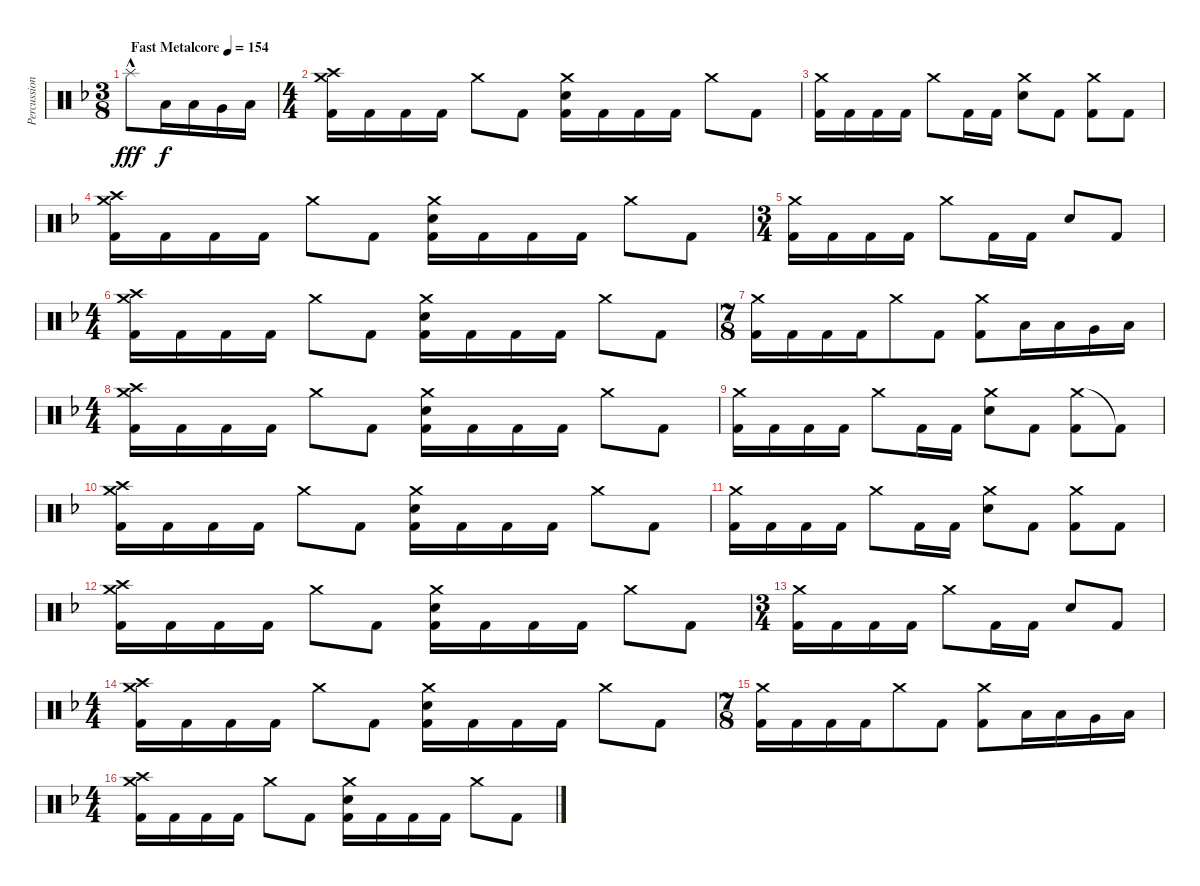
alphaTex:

\track ("Percussion" "Percussion") {instrument percussion}
\staff {score}
\articulation defaults
\ts (3 8)
\tempo (154 "Fast Metalcore")
\clef neutral
\ks dminor "Splash (hit)"{hac}.8{dy fff} "Low Tom (hit)".16{dy f} "Low Tom (hit)".16 "Very Low Tom (hit)".16 "Low Floor Tom (hit)".16
|
\ts (4 4)
("Crash medium (hit)" "Crash high (hit)" "Kick (hit) 2").16 "Kick (hit) 2".16 "Kick (hit) 2".16 "Kick (hit) 2".16 "Crash medium (hit)".8 "Kick (hit) 2".8 ("Crash medium (hit)" "Electric Snare (hit)" "Kick (hit) 2").16 "Kick (hit) 2".16 "Kick (hit) 2".16 "Kick (hit) 2".16 "Crash medium (hit)".8 "Kick (hit) 2".8 |
("Crash medium (hit)" "Kick (hit) 2").16 "Kick (hit) 2".16 "Kick (hit) 2".16 "Kick (hit) 2".16 "Crash medium (hit)".8 "Kick (hit) 2".16 "Kick (hit) 2".16 ("Crash medium (hit)" "Electric Snare (hit)").8 "Kick (hit) 2".8 ("Crash medium (hit)" "Kick (hit) 2").8 "Kick (hit) 2".8 |
("Crash medium (hit)" "Crash high (hit)" "Kick (hit) 2").16 "Kick (hit) 2".16 "Kick (hit) 2".16 "Kick (hit) 2".16 "Crash medium (hit)".8 "Kick (hit) 2".8 ("Crash medium (hit)" "Electric Snare (hit)" "Kick (hit) 2").16 "Kick (hit) 2".16 "Kick (hit) 2".16 "Kick (hit) 2".16 "Crash medium (hit)".8 "Kick (hit) 2".8 |
\ts (3 4)
("Crash medium (hit)" "Kick (hit) 2").16 "Kick (hit) 2".16 "Kick (hit) 2".16 "Kick (hit) 2".16 "Crash medium (hit)".8 "Kick (hit) 2".16 "Kick (hit) 2".16 "Electric Snare (hit)".8 "Kick (hit) 2".8 |
\ts (4 4)
("Crash medium (hit)" "Crash high (hit)" "Kick (hit) 2").16 "Kick (hit) 2".16 "Kick (hit) 2".16 "Kick (hit) 2".16 "Crash medium (hit)".8 "Kick (hit) 2".8 ("Crash medium (hit)" "Electric Snare (hit)" "Kick (hit) 2").16 "Kick (hit) 2".16 "Kick (hit) 2".16 "Kick (hit) 2".16 "Crash medium (hit)".8 "Kick (hit) 2".8 |
\ts (7 8)
("Crash medium (hit)" "Kick (hit) 2").16 "Kick (hit) 2".16 "Kick (hit) 2".16 "Kick (hit) 2".16 "Crash medium (hit)".8 "Kick (hit) 2".8 ("Crash medium (hit)" "Kick (hit) 2").8 "Low Tom (hit)".16 "Low Tom (hit)".16 "Very Low Tom (hit)".16 "Low Floor Tom (hit)".16 |
\ts (4 4)
("Crash medium (hit)" "Crash high (hit)" "Kick (hit) 2").16 "Kick (hit) 2".16 "Kick (hit) 2".16 "Kick (hit) 2".16 "Crash medium (hit)".8 "Kick (hit) 2".8 ("Crash medium (hit)" "Electric Snare (hit)" "Kick (hit) 2").16 "Kick (hit) 2".16 "Kick (hit) 2".16 "Kick (hit) 2".16 "Crash medium (hit)".8 "Kick (hit) 2".8 |
("Crash medium (hit)" "Kick (hit) 2").16 "Kick (hit) 2".16 "Kick (hit) 2".16 "Kick (hit) 2".16 "Crash medium (hit)".8 "Kick (hit) 2".16 "Kick (hit) 2".16 ("Crash medium (hit)" "Electric Snare (hit)").8 "Kick (hit) 2".8 ("Crash medium (hit)" "Kick (hit) 2").8 "Kick (hit) 2"{t}.8{volume 0} |
("Crash medium (hit)" "Crash high (hit)" "Kick (hit) 2").16{volume 14} "Kick (hit) 2".16 "Kick (hit) 2".16 "Kick (hit) 2".16 "Crash medium (hit)".8 "Kick (hit) 2".8 ("Crash medium (hit)" "Electric Snare (hit)" "Kick (hit) 2").16 "Kick (hit) 2".16 "Kick (hit) 2".16 "Kick (hit) 2".16 "Crash medium (hit)".8 "Kick (hit) 2".8 |
("Crash medium (hit)" "Kick (hit) 2").16 "Kick (hit) 2".16 "Kick (hit) 2".16 "Kick (hit) 2".16 "Crash medium (hit)".8 "Kick (hit) 2".16 "Kick (hit) 2".16 ("Crash medium (hit)" "Electric Snare (hit)").8 "Kick (hit) 2".8 ("Crash medium (hit)" "Kick (hit) 2").8 "Kick (hit) 2".8 |
("Crash medium (hit)" "Crash high (hit)" "Kick (hit) 2").16 "Kick (hit) 2".16 "Kick (hit) 2".16 "Kick (hit) 2".16 "Crash medium (hit)".8 "Kick (hit) 2".8 ("Crash medium (hit)" "Electric Snare (hit)" "Kick (hit) 2").16 "Kick (hit) 2".16 "Kick (hit) 2".16 "Kick (hit) 2".16 "Crash medium (hit)".8 "Kick (hit) 2".8 |
\ts (3 4)
("Crash medium (hit)" "Kick (hit) 2").16 "Kick (hit) 2".16 "Kick (hit) 2".16 "Kick (hit) 2".16 "Crash medium (hit)".8 "Kick (hit) 2".16 "Kick (hit) 2".16 "Electric Snare (hit)".8 "Kick (hit) 2".8 |
\ts (4 4)
("Crash medium (hit)" "Crash high (hit)" "Kick (hit) 2").16 "Kick (hit) 2".16 "Kick (hit) 2".16 "Kick (hit) 2".16 "Crash medium (hit)".8 "Kick (hit) 2".8 ("Crash medium (hit)" "Electric Snare (hit)" "Kick (hit) 2").16 "Kick (hit) 2".16 "Kick (hit) 2".16 "Kick (hit) 2".16 "Crash medium (hit)".8 "Kick (hit) 2".8 |
\ts (7 8)
("Crash medium (hit)" "Kick (hit) 2").16 "Kick (hit) 2".16 "Kick (hit) 2".16 "Kick (hit) 2".16 "Crash medium (hit)".8 "Kick (hit) 2".8 ("Crash medium (hit)" "Kick (hit) 2").8 "Low Tom (hit)".16 "Low Tom (hit)".16 "Very Low Tom (hit)".16 "Low Floor Tom (hit)".16 |
\ts (4 4)
("Crash medium (hit)" "Crash high (hit)" "Kick (hit) 2").16 "Kick (hit) 2".16 "Kick (hit) 2".16 "Kick (hit) 2".16 "Crash medium (hit)".8 "Kick (hit) 2".8 ("Crash medium (hit)" "Electric Snare (hit)" "Kick (hit) 2").16 "Kick (hit) 2".16 "Kick (hit) 2".16 "Kick (hit) 2".16 "Crash medium (hit)".8 "Kick (hit) 2".8
